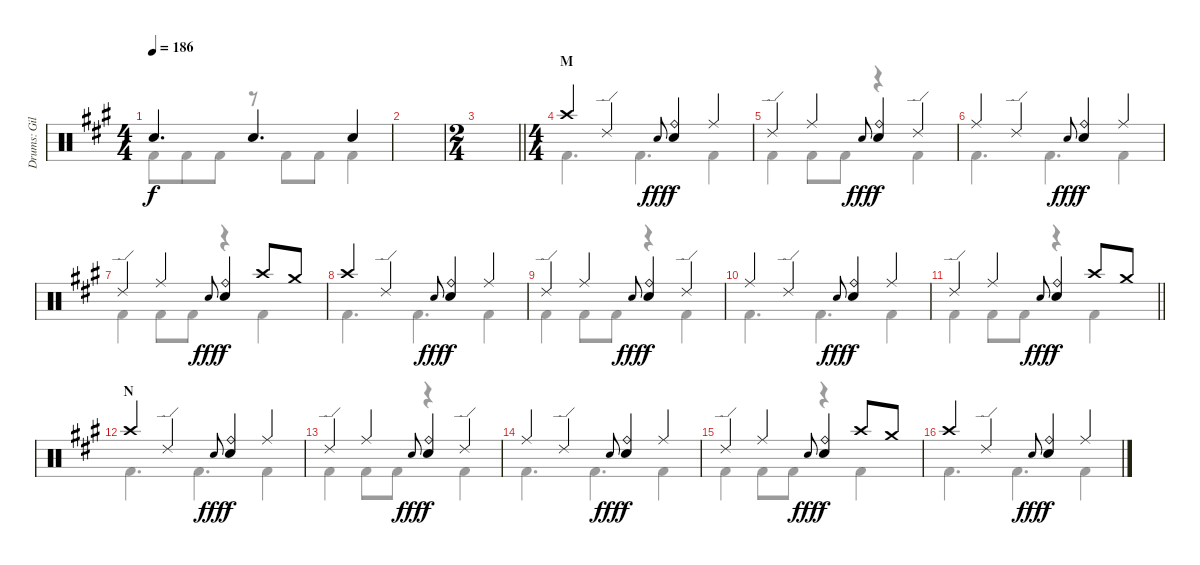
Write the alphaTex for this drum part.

\track ("Drums: Gil" "Drums: Gil") {instrument percussion}
\staff {score}
\articulation defaults
\voice
\ts (4 4)
\tempo 186
\clef neutral
\ks a "Snare (hit) 2".4{d dy f} "Snare (hit) 2".4{d} "Snare (hit) 2".4
|
|
\ts (2 4)
\barLineRight lightlight
|
\ts (4 4)
\section ("" "M")
"Crash high (hit)".4 "Ride (edge) 2".4 "Electric Snare (hit)".8{gr onbeat dy fff} ("Ride (bell)" "Snare (hit) 2").4{dy f} "Ride (middle)".4 |
"Ride (edge) 2".4 "Ride (middle)".4 "Electric Snare (hit)".8{gr onbeat dy fff} ("Ride (bell)" "Snare (hit) 2").4{dy f} "Ride (edge) 2".4 |
"Ride (middle)".4 "Ride (edge) 2".4 "Electric Snare (hit)".8{gr onbeat dy fff} ("Ride (bell)" "Snare (hit) 2").4{dy f} "Ride (middle)".4 |
"Ride (edge) 2".4 "Ride (middle)".4 "Electric Snare (hit)".8{gr onbeat dy fff} ("Ride (bell)" "Snare (hit) 2").4{dy f} "Crash high (hit)".8 "Crash medium (hit)".8 |
"Crash high (hit)".4 "Ride (edge) 2".4 "Electric Snare (hit)".8{gr onbeat dy fff} ("Ride (bell)" "Snare (hit) 2").4{dy f} "Ride (middle)".4 |
"Ride (edge) 2".4 "Ride (middle)".4 "Electric Snare (hit)".8{gr onbeat dy fff} ("Ride (bell)" "Snare (hit) 2").4{dy f} "Ride (edge) 2".4 |
"Ride (middle)".4 "Ride (edge) 2".4 "Electric Snare (hit)".8{gr onbeat dy fff} ("Ride (bell)" "Snare (hit) 2").4{dy f} "Ride (middle)".4 |
\barLineRight lightlight "Ride (edge) 2".4 "Ride (middle)".4 "Electric Snare (hit)".8{gr onbeat dy fff}
("Ride (bell)" "Snare (hit) 2").4{dy f} "Crash high (hit)".8 "Crash medium (hit)".8 |
\section ("" "N")
"Crash high (hit)".4 "Ride (edge) 2".4 "Electric Snare (hit)".8{gr onbeat dy fff} ("Ride (bell)" "Snare (hit) 2").4{dy f} "Ride (middle)".4 |
"Ride (edge) 2".4 "Ride (middle)".4 "Electric Snare (hit)".8{gr onbeat dy fff} ("Ride (bell)" "Snare (hit) 2").4{dy f} "Ride (edge) 2".4 |
"Ride (middle)".4 "Ride (edge) 2".4 "Electric Snare (hit)".8{gr onbeat dy fff} ("Ride (bell)" "Snare (hit) 2").4{dy f} "Ride (middle)".4 |
"Ride (edge) 2".4 "Ride (middle)".4 "Electric Snare (hit)".8{gr onbeat dy fff} ("Ride (bell)" "Snare (hit) 2").4{dy f} "Crash high (hit)".8 "Crash medium (hit)".8 |
"Crash high (hit)".4 "Ride (edge) 2".4 "Electric Snare (hit)".8{gr onbeat dy fff} ("Ride (bell)" "Snare (hit) 2").4{dy f} "Ride (middle)".4
\voice
\clef neutral
\ottava regular
\simile none
\ks a "Kick (hit) 2".8{dy f} "Kick (hit) 2".8{beam merge} "Kick (hit) 2".8
r.8 "Kick (hit) 2".8 "Kick (hit) 2".8{beam merge} "Kick (hit) 2".4 |
|
\barLineRight lightlight
|
"Kick (hit) 2".4{d} "Kick (hit) 2".4{d} "Kick (hit) 2".4 |
"Kick (hit) 2".4 "Kick (hit) 2".8 "Kick (hit) 2".8 r.4 "Kick (hit) 2".4 |
"Kick (hit) 2".4{d} "Kick (hit) 2".4{d} "Kick (hit) 2".4 |
"Kick (hit) 2".4 "Kick (hit) 2".8 "Kick (hit) 2".8 r.4 "Kick (hit) 2".4 |
"Kick (hit) 2".4{d} "Kick (hit) 2".4{d} "Kick (hit) 2".4 |
"Kick (hit) 2".4 "Kick (hit) 2".8 "Kick (hit) 2".8 r.4 "Kick (hit) 2".4 |
"Kick (hit) 2".4{d} "Kick (hit) 2".4{d} "Kick (hit) 2".4 |
\barLineRight lightlight "Kick (hit) 2".4 "Kick (hit) 2".8 "Kick (hit) 2".8
r.4 "Kick (hit) 2".4 |
"Kick (hit) 2".4{d} "Kick (hit) 2".4{d} "Kick (hit) 2".4 |
"Kick (hit) 2".4 "Kick (hit) 2".8 "Kick (hit) 2".8 r.4 "Kick (hit) 2".4 |
"Kick (hit) 2".4{d} "Kick (hit) 2".4{d} "Kick (hit) 2".4 |
"Kick (hit) 2".4 "Kick (hit) 2".8 "Kick (hit) 2".8 r.4 "Kick (hit) 2".4 |
"Kick (hit) 2".4{d} "Kick (hit) 2".4{d} "Kick (hit) 2".4
